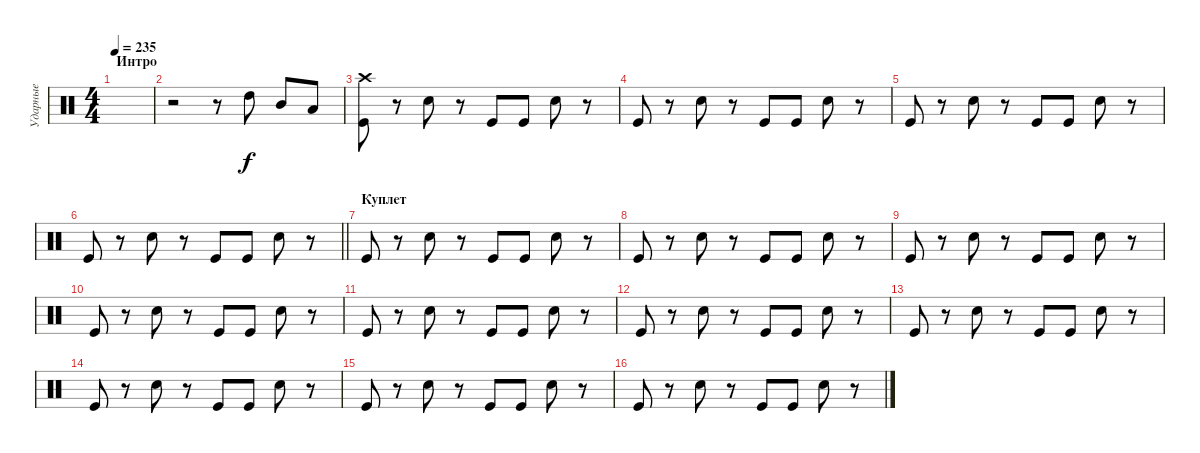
\track ("Ударные" "Ударные") {instrument percussion}
\staff {score}
\articulation defaults
\ts (4 4)
\section ("" "Интро")
\tempo 235
\clef neutral
\ks c
|
r.2 r.8 "High Tom (hit)".8 "Mid Tom (hit)".8 "Low Tom (hit)".8 |
("Kick (hit)" "Crash high (hit)").8 r.8 "Snare (hit) 2".8 r.8 "Kick (hit)".8 "Kick (hit)".8 "Snare (hit) 2".8 r.8 |
"Kick (hit)".8 r.8 "Snare (hit) 2".8 r.8 "Kick (hit)".8 "Kick (hit)".8 "Snare (hit) 2".8 r.8 |
"Kick (hit)".8 r.8 "Snare (hit) 2".8 r.8 "Kick (hit)".8 "Kick (hit)".8 "Snare (hit) 2".8 r.8 |
\barLineRight lightlight "Kick (hit)".8
r.8 "Snare (hit) 2".8 r.8 "Kick (hit)".8 "Kick (hit)".8 "Snare (hit) 2".8 r.8 |
\section ("" "Куплет")
"Kick (hit)".8 r.8 "Snare (hit) 2".8 r.8 "Kick (hit)".8 "Kick (hit)".8 "Snare (hit) 2".8 r.8 |
"Kick (hit)".8 r.8 "Snare (hit) 2".8 r.8 "Kick (hit)".8 "Kick (hit)".8 "Snare (hit) 2".8 r.8 |
"Kick (hit)".8 r.8 "Snare (hit) 2".8 r.8 "Kick (hit)".8 "Kick (hit)".8 "Snare (hit) 2".8 r.8 |
"Kick (hit)".8 r.8 "Snare (hit) 2".8 r.8 "Kick (hit)".8 "Kick (hit)".8 "Snare (hit) 2".8 r.8 |
"Kick (hit)".8 r.8 "Snare (hit) 2".8 r.8 "Kick (hit)".8 "Kick (hit)".8 "Snare (hit) 2".8 r.8 |
"Kick (hit)".8 r.8 "Snare (hit) 2".8 r.8 "Kick (hit)".8 "Kick (hit)".8 "Snare (hit) 2".8 r.8 |
"Kick (hit)".8 r.8 "Snare (hit) 2".8 r.8 "Kick (hit)".8 "Kick (hit)".8 "Snare (hit) 2".8 r.8 |
"Kick (hit)".8 r.8 "Snare (hit) 2".8 r.8 "Kick (hit)".8 "Kick (hit)".8 "Snare (hit) 2".8 r.8 |
"Kick (hit)".8 r.8 "Snare (hit) 2".8 r.8 "Kick (hit)".8 "Kick (hit)".8 "Snare (hit) 2".8 r.8 |
"Kick (hit)".8 r.8 "Snare (hit) 2".8 r.8 "Kick (hit)".8 "Kick (hit)".8 "Snare (hit) 2".8 r.8
